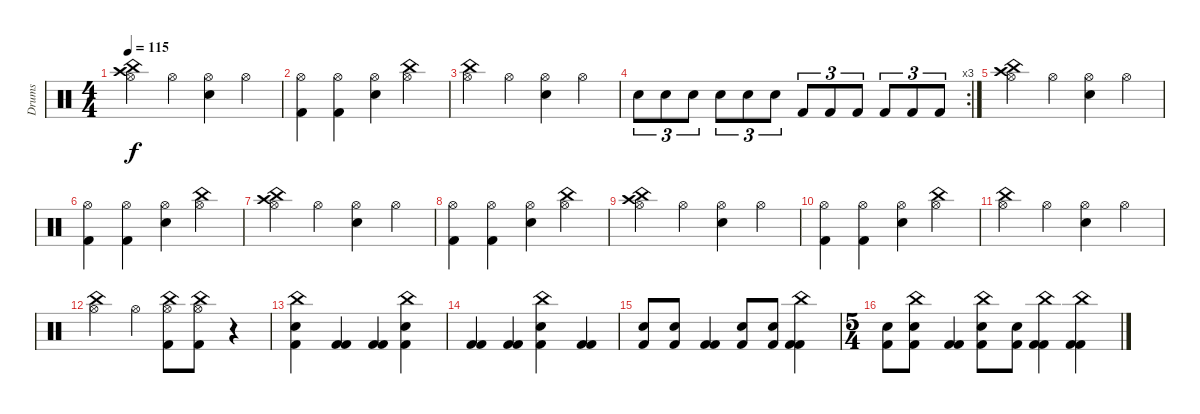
\track ("Drums" "Drums") {instrument percussion}
\staff {score}
\articulation defaults
\ts (4 4)
\tempo 115
\clef neutral
\ks c
("Crash high (hit)" "Hi-Hat (open)" "China (hit)").4{dy f} "Hi-Hat (open)".4 ("Hi-Hat (open)" "Snare (hit) 2").4 "Hi-Hat (open)".4 |
("Hi-Hat (open)" "Kick (hit) 2").4 ("Hi-Hat (open)" "Kick (hit) 2").4 ("Hi-Hat (open)" "Snare (hit) 2").4 ("Hi-Hat (open)" "China (hit)").4 |
("Hi-Hat (open)" "China (hit)").4 "Hi-Hat (open)".4 ("Hi-Hat (open)" "Snare (hit) 2").4 "Hi-Hat (open)".4 |
\rc 3 "Snare (hit) 2".8{tu (3 2)} "Snare (hit) 2".8{tu (3 2)} "Snare (hit) 2".8{tu (3 2)} "Snare (hit) 2".8{tu (3 2)} "Snare (hit) 2".8{tu (3 2)} "Snare (hit) 2".8{tu (3 2)} "Kick (hit) 2".8{tu (3 2)} "Kick (hit) 2".8{tu (3 2)} "Kick (hit) 2".8{tu (3 2)} "Kick (hit) 2".8{tu (3 2)} "Kick (hit) 2".8{tu (3 2)} "Kick (hit) 2".8{tu (3 2)}
|
("Crash high (hit)" "Hi-Hat (open)" "China (hit)").4 "Hi-Hat (open)".4 ("Hi-Hat (open)" "Snare (hit) 2").4 "Hi-Hat (open)".4 |
("Hi-Hat (open)" "Kick (hit) 2").4 ("Hi-Hat (open)" "Kick (hit) 2").4 ("Hi-Hat (open)" "Snare (hit) 2").4 ("Hi-Hat (open)" "China (hit)").4 |
("Crash high (hit)" "Hi-Hat (open)" "China (hit)").4 "Hi-Hat (open)".4 ("Hi-Hat (open)" "Snare (hit) 2").4 "Hi-Hat (open)".4 |
("Hi-Hat (open)" "Kick (hit) 2").4 ("Hi-Hat (open)" "Kick (hit) 2").4 ("Hi-Hat (open)" "Snare (hit) 2").4 ("Hi-Hat (open)" "China (hit)").4 |
("Crash high (hit)" "Hi-Hat (open)" "China (hit)").4 "Hi-Hat (open)".4 ("Hi-Hat (open)" "Snare (hit) 2").4 "Hi-Hat (open)".4 |
("Hi-Hat (open)" "Kick (hit) 2").4 ("Hi-Hat (open)" "Kick (hit) 2").4 ("Hi-Hat (open)" "Snare (hit) 2").4 ("Hi-Hat (open)" "China (hit)").4 |
("Hi-Hat (open)" "China (hit)").4 "Hi-Hat (open)".4 ("Hi-Hat (open)" "Snare (hit) 2").4 "Hi-Hat (open)".4 |
("Hi-Hat (open)" "China (hit)").4 "Hi-Hat (open)".4 ("Kick (hit) 2" "Hi-Hat (open)" "China (hit)").8 ("Kick (hit) 2" "Hi-Hat (open)" "China (hit)").8 r.4 |
("China (hit)" "Kick (hit) 2" "Snare (hit) 2").4 ("Kick (hit) 2" "Kick (hit) 2").4 ("Kick (hit) 2" "Kick (hit) 2").4 ("China (hit)" "Kick (hit) 2" "Snare (hit) 2").4 |
("Kick (hit) 2" "Kick (hit) 2").4 ("Kick (hit) 2" "Kick (hit) 2").4 ("China (hit)" "Kick (hit) 2" "Snare (hit) 2").4 ("Kick (hit) 2" "Kick (hit) 2").4 |
("Kick (hit) 2" "Snare (hit) 2").8 ("Kick (hit) 2" "Snare (hit) 2").8 ("Kick (hit) 2" "Kick (hit) 2").4 ("Kick (hit) 2" "Snare (hit) 2").8 ("Kick (hit) 2" "Snare (hit) 2").8 ("China (hit)" "Kick (hit) 2" "Kick (hit) 2").4 |
\ts (5 4)
("Kick (hit) 2" "Snare (hit) 2").8 ("China (hit)" "Kick (hit) 2" "Snare (hit) 2").8 ("Kick (hit) 2" "Kick (hit) 2").4 ("China (hit)" "Kick (hit) 2" "Snare (hit) 2").8 ("Kick (hit) 2" "Snare (hit) 2").8 ("China (hit)" "Kick (hit) 2" "Kick (hit) 2").4 ("China (hit)" "Kick (hit) 2" "Kick (hit) 2").4
